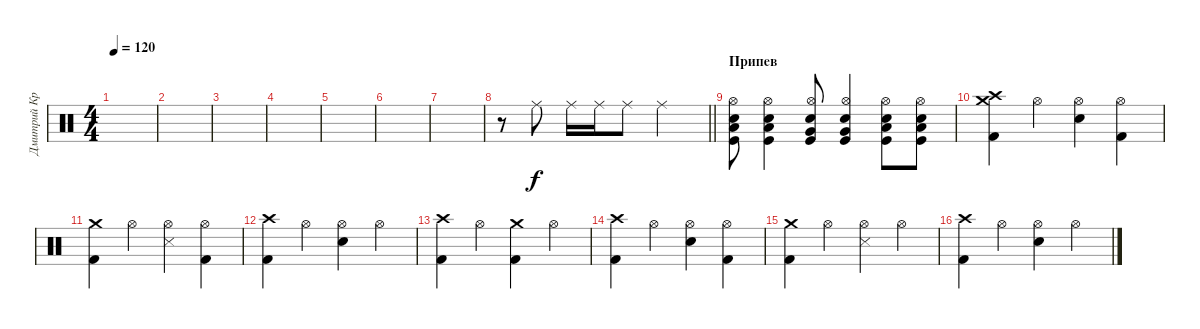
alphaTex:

\track ("Дмитрий Кривенков       (Ударные)" "Дмитрий Кр") {instrument percussion}
\staff {score}
\articulation defaults
\ts (4 4)
\tempo 120
\clef neutral
\ks c
|
|
|
|
|
|
|
\barLineRight lightlight
r.8 "Ride (middle)".8{dy f} "Ride (middle)".16 "Ride (middle)".16 "Ride (middle)".8 "Ride (middle)".2 |
\section ("" "Припев")
("Kick (hit)" "Electric Snare (hit)" "Low Tom (hit)" "Hi-Hat (open)").8 ("Kick (hit)" "Electric Snare (hit)" "Low Tom (hit)" "Hi-Hat (open)").4 ("Hi-Hat (open)" "Electric Snare (hit)" "Very Low Tom (hit)" "Kick (hit)").8 ("Hi-Hat (open)" "Electric Snare (hit)" "Very Low Tom (hit)" "Kick (hit)").4 ("Hi-Hat (open)" "Electric Snare (hit)" "Low Tom (hit)" "Kick (hit)").8 ("Hi-Hat (open)" "Electric Snare (hit)" "Low Tom (hit)" "Kick (hit)").8 |
("Crash medium (hit)" "Crash high (hit)" "Kick (hit) 2").4 "Hi-Hat (open)".4 ("Hi-Hat (open)" "Electric Snare (hit)").4 ("Hi-Hat (open)" "Kick (hit) 2").4 |
("Crash medium (hit)" "Kick (hit) 2").4 "Hi-Hat (open)".4 ("Snare (side stick) 3" "Hi-Hat (open)").4 ("Hi-Hat (open)" "Kick (hit) 2").4 |
("Crash high (hit)" "Kick (hit) 2").4 "Hi-Hat (open)".4 ("Hi-Hat (open)" "Electric Snare (hit)").4 "Hi-Hat (open)".4 |
("Crash high (hit)" "Kick (hit) 2").4 "Hi-Hat (open)".4 ("Crash medium (hit)" "Kick (hit) 2").4 "Hi-Hat (open)".4 |
("Crash high (hit)" "Kick (hit) 2").4 "Hi-Hat (open)".4 ("Hi-Hat (open)" "Electric Snare (hit)").4 ("Hi-Hat (open)" "Kick (hit) 2").4 |
("Crash medium (hit)" "Kick (hit) 2").4 "Hi-Hat (open)".4 ("Snare (side stick) 3" "Hi-Hat (open)").4 "Hi-Hat (open)".4 |
("Crash high (hit)" "Kick (hit) 2").4 "Hi-Hat (open)".4 ("Hi-Hat (open)" "Electric Snare (hit)").4 "Hi-Hat (open)".4
